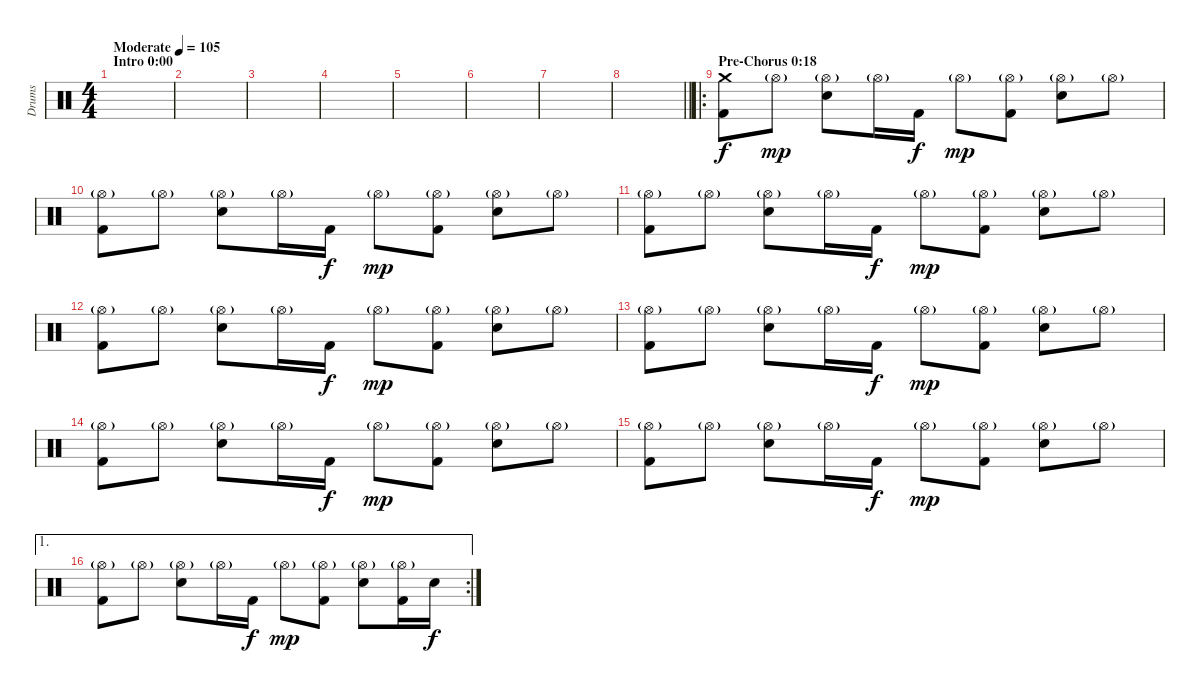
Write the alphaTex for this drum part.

\track ("Drums" "Drums") {instrument percussion}
\staff {score}
\articulation defaults
\ts (4 4)
\section ("" "Intro 0:00")
\tempo (105 "Moderate")
\clef neutral
\ks c
|
|
|
|
|
|
|
\barLineRight lightlight
|
\ro
\section ("" "Pre-Chorus 0:18")
("Crash medium (hit)" "Kick (hit) 2").8 "Hi-Hat (open)"{g}.8{dy mp} ("Hi-Hat (open)"{g} "Electric Snare (hit)").8 "Hi-Hat (open)"{g}.16 "Kick (hit) 2".16{dy f} "Hi-Hat (open)"{g}.8{dy mp} ("Hi-Hat (open)"{g} "Kick (hit) 2").8 ("Hi-Hat (open)"{g} "Electric Snare (hit)").8 "Hi-Hat (open)"{g}.8 |
("Hi-Hat (open)"{g} "Kick (hit) 2").8 "Hi-Hat (open)"{g}.8 ("Hi-Hat (open)"{g} "Electric Snare (hit)").8 "Hi-Hat (open)"{g}.16 "Kick (hit) 2".16{dy f} "Hi-Hat (open)"{g}.8{dy mp} ("Hi-Hat (open)"{g} "Kick (hit) 2").8 ("Hi-Hat (open)"{g} "Electric Snare (hit)").8 "Hi-Hat (open)"{g}.8 |
("Hi-Hat (open)"{g} "Kick (hit) 2").8 "Hi-Hat (open)"{g}.8 ("Hi-Hat (open)"{g} "Electric Snare (hit)").8 "Hi-Hat (open)"{g}.16 "Kick (hit) 2".16{dy f} "Hi-Hat (open)"{g}.8{dy mp} ("Hi-Hat (open)"{g} "Kick (hit) 2").8 ("Hi-Hat (open)"{g} "Electric Snare (hit)").8 "Hi-Hat (open)"{g}.8 |
("Hi-Hat (open)"{g} "Kick (hit) 2").8 "Hi-Hat (open)"{g}.8 ("Hi-Hat (open)"{g} "Electric Snare (hit)").8 "Hi-Hat (open)"{g}.16 "Kick (hit) 2".16{dy f} "Hi-Hat (open)"{g}.8{dy mp} ("Hi-Hat (open)"{g} "Kick (hit) 2").8 ("Hi-Hat (open)"{g} "Electric Snare (hit)").8 "Hi-Hat (open)"{g}.8 |
("Hi-Hat (open)"{g} "Kick (hit) 2").8 "Hi-Hat (open)"{g}.8 ("Hi-Hat (open)"{g} "Electric Snare (hit)").8 "Hi-Hat (open)"{g}.16 "Kick (hit) 2".16{dy f} "Hi-Hat (open)"{g}.8{dy mp} ("Hi-Hat (open)"{g} "Kick (hit) 2").8 ("Hi-Hat (open)"{g} "Electric Snare (hit)").8 "Hi-Hat (open)"{g}.8 |
("Hi-Hat (open)"{g} "Kick (hit) 2").8 "Hi-Hat (open)"{g}.8 ("Hi-Hat (open)"{g} "Electric Snare (hit)").8 "Hi-Hat (open)"{g}.16 "Kick (hit) 2".16{dy f} "Hi-Hat (open)"{g}.8{dy mp} ("Hi-Hat (open)"{g} "Kick (hit) 2").8 ("Hi-Hat (open)"{g} "Electric Snare (hit)").8 "Hi-Hat (open)"{g}.8 |
("Hi-Hat (open)"{g} "Kick (hit) 2").8 "Hi-Hat (open)"{g}.8 ("Hi-Hat (open)"{g} "Electric Snare (hit)").8 "Hi-Hat (open)"{g}.16 "Kick (hit) 2".16{dy f} "Hi-Hat (open)"{g}.8{dy mp} ("Hi-Hat (open)"{g} "Kick (hit) 2").8 ("Hi-Hat (open)"{g} "Electric Snare (hit)").8 "Hi-Hat (open)"{g}.8 |
\ae 1
\rc 2
("Hi-Hat (open)"{g} "Kick (hit) 2").8 "Hi-Hat (open)"{g}.8 ("Hi-Hat (open)"{g} "Electric Snare (hit)").8 "Hi-Hat (open)"{g}.16 "Kick (hit) 2".16{dy f} "Hi-Hat (open)"{g}.8{dy mp} ("Hi-Hat (open)"{g} "Kick (hit) 2").8 ("Hi-Hat (open)"{g} "Electric Snare (hit)").8 ("Hi-Hat (open)"{g} "Kick (hit) 2").16 "Electric Snare (hit)".16{dy f}
